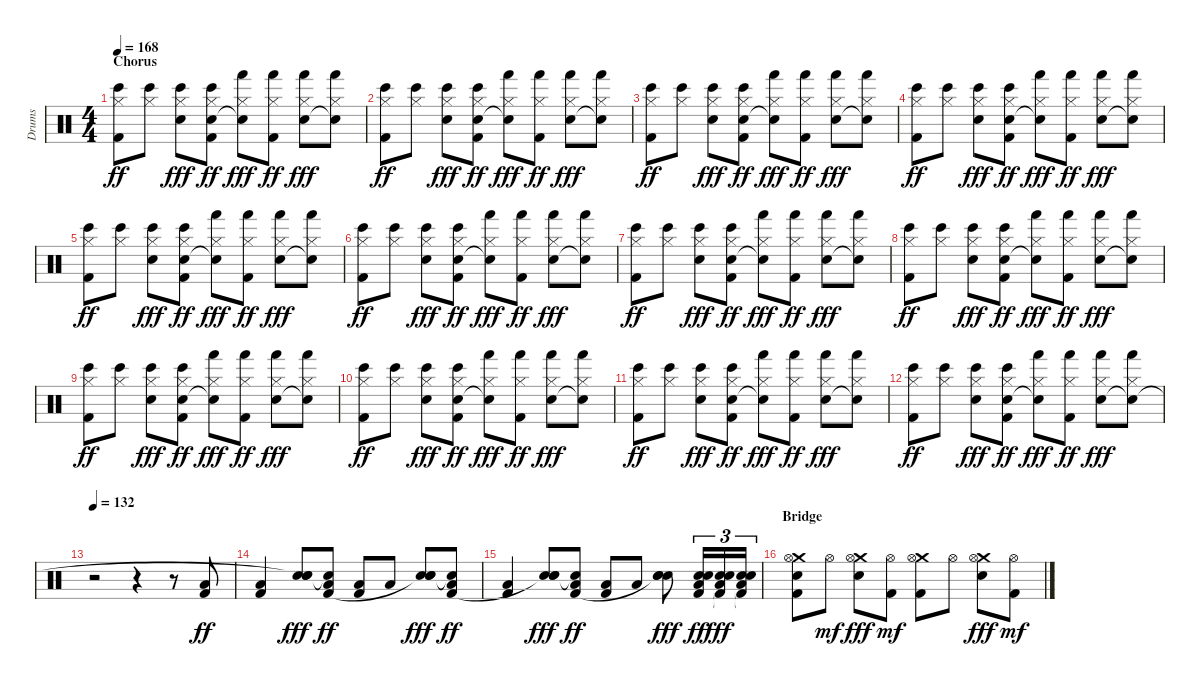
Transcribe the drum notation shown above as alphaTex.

\track ("Drums" "Drums") {instrument percussion}
\staff {score}
\articulation defaults
\ts (4 4)
\section ("" "Chorus")
\tempo 168
\clef neutral
\ks c
("Bongo High (hit)" "Hi-Hat (closed)" "Kick (hit) 2").8{dy ff} ("Bongo High (hit)" "Hi-Hat (closed)").8 ("Bongo High (hit)" "Hi-Hat (closed)" "Electric Snare (hit)").8{dy fff} ("Bongo High (hit)" "Hi-Hat (closed)" "Electric Snare (hit)" "Kick (hit) 2").8{dy ff} ("Hand (hit)" "Hi-Hat (closed)" "Electric Snare (hit)"{t}).8{dy fff} ("Hand (hit)" "Hi-Hat (closed)" "Kick (hit) 2").8{dy ff} ("Hand (hit)" "Hi-Hat (closed)" "Electric Snare (hit)").8{dy fff} ("Hand (hit)" "Hi-Hat (closed)" "Snare (hit)"{t}).8 |
("Bongo High (hit)" "Hi-Hat (closed)" "Kick (hit) 2").8{dy ff} ("Bongo High (hit)" "Hi-Hat (closed)").8 ("Bongo High (hit)" "Hi-Hat (closed)" "Electric Snare (hit)").8{dy fff} ("Bongo High (hit)" "Hi-Hat (closed)" "Electric Snare (hit)" "Kick (hit) 2").8{dy ff} ("Hand (hit)" "Hi-Hat (closed)" "Electric Snare (hit)"{t}).8{dy fff} ("Hand (hit)" "Hi-Hat (closed)" "Kick (hit) 2").8{dy ff} ("Hand (hit)" "Hi-Hat (closed)" "Electric Snare (hit)").8{dy fff} ("Hand (hit)" "Hi-Hat (closed)" "Snare (hit)"{t}).8 |
("Bongo High (hit)" "Hi-Hat (closed)" "Kick (hit) 2").8{dy ff} ("Bongo High (hit)" "Hi-Hat (closed)").8 ("Bongo High (hit)" "Hi-Hat (closed)" "Electric Snare (hit)").8{dy fff} ("Bongo High (hit)" "Hi-Hat (closed)" "Electric Snare (hit)" "Kick (hit) 2").8{dy ff} ("Hand (hit)" "Hi-Hat (closed)" "Electric Snare (hit)"{t}).8{dy fff} ("Hand (hit)" "Hi-Hat (closed)" "Kick (hit) 2").8{dy ff} ("Hand (hit)" "Hi-Hat (closed)" "Electric Snare (hit)").8{dy fff} ("Hand (hit)" "Hi-Hat (closed)" "Snare (hit)"{t}).8 |
("Bongo High (hit)" "Hi-Hat (closed)" "Kick (hit) 2").8{dy ff} ("Bongo High (hit)" "Hi-Hat (closed)").8 ("Bongo High (hit)" "Hi-Hat (closed)" "Electric Snare (hit)").8{dy fff} ("Bongo High (hit)" "Hi-Hat (closed)" "Electric Snare (hit)" "Kick (hit) 2").8{dy ff} ("Hand (hit)" "Hi-Hat (closed)" "Electric Snare (hit)"{t}).8{dy fff} ("Hand (hit)" "Hi-Hat (closed)" "Kick (hit) 2").8{dy ff} ("Hand (hit)" "Hi-Hat (closed)" "Electric Snare (hit)").8{dy fff} ("Hand (hit)" "Hi-Hat (closed)" "Snare (hit)"{t}).8 |
("Bongo High (hit)" "Hi-Hat (closed)" "Kick (hit) 2").8{dy ff} ("Bongo High (hit)" "Hi-Hat (closed)").8 ("Bongo High (hit)" "Hi-Hat (closed)" "Electric Snare (hit)").8{dy fff} ("Bongo High (hit)" "Hi-Hat (closed)" "Electric Snare (hit)" "Kick (hit) 2").8{dy ff} ("Hand (hit)" "Hi-Hat (closed)" "Electric Snare (hit)"{t}).8{dy fff} ("Hand (hit)" "Hi-Hat (closed)" "Kick (hit) 2").8{dy ff} ("Hand (hit)" "Hi-Hat (closed)" "Electric Snare (hit)").8{dy fff} ("Hand (hit)" "Hi-Hat (closed)" "Snare (hit)"{t}).8 |
("Bongo High (hit)" "Hi-Hat (closed)" "Kick (hit) 2").8{dy ff} ("Bongo High (hit)" "Hi-Hat (closed)").8 ("Bongo High (hit)" "Hi-Hat (closed)" "Electric Snare (hit)").8{dy fff} ("Bongo High (hit)" "Hi-Hat (closed)" "Electric Snare (hit)" "Kick (hit) 2").8{dy ff} ("Hand (hit)" "Hi-Hat (closed)" "Electric Snare (hit)"{t}).8{dy fff} ("Hand (hit)" "Hi-Hat (closed)" "Kick (hit) 2").8{dy ff} ("Hand (hit)" "Hi-Hat (closed)" "Electric Snare (hit)").8{dy fff} ("Hand (hit)" "Hi-Hat (closed)" "Snare (hit)"{t}).8 |
("Bongo High (hit)" "Hi-Hat (closed)" "Kick (hit) 2").8{dy ff} ("Bongo High (hit)" "Hi-Hat (closed)").8 ("Bongo High (hit)" "Hi-Hat (closed)" "Electric Snare (hit)").8{dy fff} ("Bongo High (hit)" "Hi-Hat (closed)" "Electric Snare (hit)" "Kick (hit) 2").8{dy ff} ("Hand (hit)" "Hi-Hat (closed)" "Electric Snare (hit)"{t}).8{dy fff} ("Hand (hit)" "Hi-Hat (closed)" "Kick (hit) 2").8{dy ff} ("Hand (hit)" "Hi-Hat (closed)" "Electric Snare (hit)").8{dy fff} ("Hand (hit)" "Hi-Hat (closed)" "Snare (hit)"{t}).8 |
("Bongo High (hit)" "Hi-Hat (closed)" "Kick (hit) 2").8{dy ff} ("Bongo High (hit)" "Hi-Hat (closed)").8 ("Bongo High (hit)" "Hi-Hat (closed)" "Electric Snare (hit)").8{dy fff} ("Bongo High (hit)" "Hi-Hat (closed)" "Electric Snare (hit)" "Kick (hit) 2").8{dy ff} ("Hand (hit)" "Hi-Hat (closed)" "Electric Snare (hit)"{t}).8{dy fff} ("Hand (hit)" "Hi-Hat (closed)" "Kick (hit) 2").8{dy ff} ("Hand (hit)" "Hi-Hat (closed)" "Electric Snare (hit)").8{dy fff} ("Hand (hit)" "Hi-Hat (closed)" "Snare (hit)"{t}).8 |
("Bongo High (hit)" "Hi-Hat (closed)" "Kick (hit) 2").8{dy ff} ("Bongo High (hit)" "Hi-Hat (closed)").8 ("Bongo High (hit)" "Hi-Hat (closed)" "Electric Snare (hit)").8{dy fff} ("Bongo High (hit)" "Hi-Hat (closed)" "Electric Snare (hit)" "Kick (hit) 2").8{dy ff} ("Hand (hit)" "Hi-Hat (closed)" "Electric Snare (hit)"{t}).8{dy fff} ("Hand (hit)" "Hi-Hat (closed)" "Kick (hit) 2").8{dy ff} ("Hand (hit)" "Hi-Hat (closed)" "Electric Snare (hit)").8{dy fff} ("Hand (hit)" "Hi-Hat (closed)" "Snare (hit)"{t}).8 |
("Bongo High (hit)" "Hi-Hat (closed)" "Kick (hit) 2").8{dy ff} ("Bongo High (hit)" "Hi-Hat (closed)").8 ("Bongo High (hit)" "Hi-Hat (closed)" "Electric Snare (hit)").8{dy fff} ("Bongo High (hit)" "Hi-Hat (closed)" "Electric Snare (hit)" "Kick (hit) 2").8{dy ff} ("Hand (hit)" "Hi-Hat (closed)" "Electric Snare (hit)"{t}).8{dy fff} ("Hand (hit)" "Hi-Hat (closed)" "Kick (hit) 2").8{dy ff} ("Hand (hit)" "Hi-Hat (closed)" "Electric Snare (hit)").8{dy fff} ("Hand (hit)" "Hi-Hat (closed)" "Snare (hit)"{t}).8 |
("Bongo High (hit)" "Hi-Hat (closed)" "Kick (hit) 2").8{dy ff} ("Bongo High (hit)" "Hi-Hat (closed)").8 ("Bongo High (hit)" "Hi-Hat (closed)" "Electric Snare (hit)").8{dy fff} ("Bongo High (hit)" "Hi-Hat (closed)" "Electric Snare (hit)" "Kick (hit) 2").8{dy ff} ("Hand (hit)" "Hi-Hat (closed)" "Electric Snare (hit)"{t}).8{dy fff} ("Hand (hit)" "Hi-Hat (closed)" "Kick (hit) 2").8{dy ff} ("Hand (hit)" "Hi-Hat (closed)" "Electric Snare (hit)").8{dy fff} ("Hand (hit)" "Hi-Hat (closed)" "Snare (hit)"{t}).8 |
("Bongo High (hit)" "Hi-Hat (closed)" "Kick (hit) 2").8{dy ff} ("Bongo High (hit)" "Hi-Hat (closed)").8 ("Bongo High (hit)" "Hi-Hat (closed)" "Electric Snare (hit)").8{dy fff} ("Bongo High (hit)" "Hi-Hat (closed)" "Electric Snare (hit)" "Kick (hit) 2").8{dy ff} ("Hand (hit)" "Hi-Hat (closed)" "Electric Snare (hit)"{t}).8{dy fff} ("Hand (hit)" "Hi-Hat (closed)" "Kick (hit) 2").8{dy ff} ("Hand (hit)" "Hi-Hat (closed)" "Electric Snare (hit)").8{dy fff} ("Hand (hit)" "Hi-Hat (closed)" "Snare (hit)"{t}).8 |
\tempo 132
r.2 r.4 r.8 ("Low Tom (hit)" "Kick (hit) 2").8{dy ff} |
("Low Tom (hit)" "Kick (hit) 2").4 ("Snare (hit) 2" "Electric Snare (hit)" "Electric Snare (hit)"{t}).8{dy fff} ("Snare (hit)"{t} "Low Tom (hit)" "Kick (hit) 2").8{dy ff} ("Low Tom (hit)" "Kick (hit) 2").8 "Low Tom (hit)".8 ("Snare (hit) 2" "Electric Snare (hit)" "Electric Snare (hit)"{t}).8{dy fff} ("Snare (hit)"{t} "Low Tom (hit)" "Kick (hit) 2").8{dy ff} |
("Low Tom (hit)" "Kick (hit) 2").4 ("Snare (hit) 2" "Electric Snare (hit)" "Electric Snare (hit)"{t}).8{dy fff} ("Snare (hit)"{t} "Low Tom (hit)" "Kick (hit) 2").8{dy ff} ("Low Tom (hit)" "Kick (hit) 2").8 "Low Tom (hit)".8 ("Snare (hit) 2" "Electric Snare (hit)" "Electric Snare (hit)"{t}).8{dy fff} ("Snare (hit) 2" "Electric Snare (hit)" "Low Tom (hit)" "Kick (hit) 2").16{tu (3 2) dy ff} ("Snare (hit) 2" "Electric Snare (hit)" "Low Tom (hit)"{t} "Kick (hit) 2"{t}).16{tu (3 2) dy fff} ("Snare (hit) 2" "Electric Snare (hit)" "Low Tom (hit)"{t} "Kick (hit) 2"{t}).16{tu (3 2)} |
\section ("" "Bridge")
("Crash medium (hit)" "Hi-Hat (open)" "Snare (hit) 2" "Kick (hit) 2").8 "Hi-Hat (open)".8{dy mf} ("Crash medium (hit)" "Hi-Hat (open)" "Electric Snare (hit)").8{dy fff} ("Hi-Hat (open)" "Kick (hit) 2").8{dy mf} ("Crash medium (hit)" "Hi-Hat (open)" "Kick (hit) 2").8 "Hi-Hat (open)".8 ("Crash medium (hit)" "Hi-Hat (open)" "Electric Snare (hit)").8{dy fff} ("Hi-Hat (open)" "Kick (hit) 2").8{dy mf}
